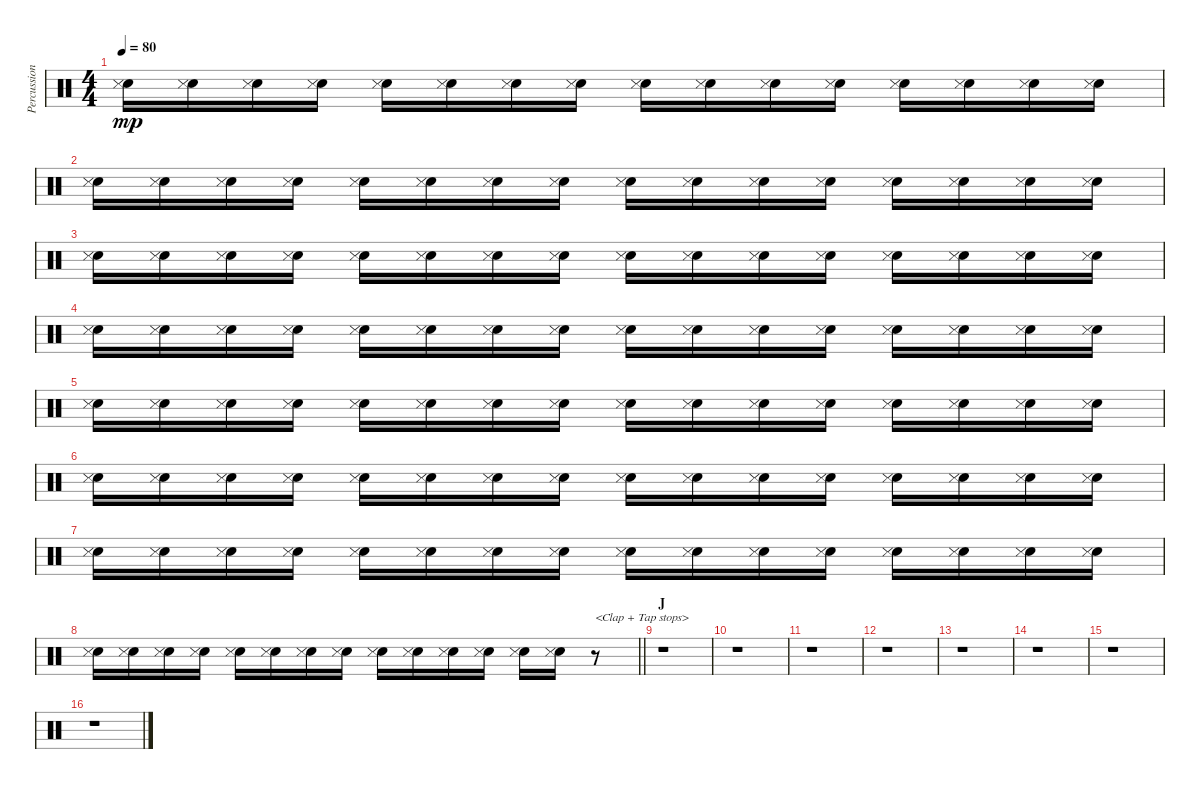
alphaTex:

\track ("Percussion" "Percussion") {instrument percussion}
\staff {score}
\articulation defaults
\ts (4 4)
\tempo 80
\clef neutral
\ks c
("Hand Clap (hit)" "Snare (side stick) 3").16{dy mp} ("Hand Clap (hit)" "Snare (side stick) 3").16 ("Hand Clap (hit)" "Snare (side stick) 3").16 ("Hand Clap (hit)" "Snare (side stick) 3").16 ("Hand Clap (hit)" "Snare (side stick) 3").16 ("Hand Clap (hit)" "Snare (side stick) 3").16 ("Hand Clap (hit)" "Snare (side stick) 3").16 ("Hand Clap (hit)" "Snare (side stick) 3").16 ("Hand Clap (hit)" "Snare (side stick) 3").16 ("Hand Clap (hit)" "Snare (side stick) 3").16 ("Hand Clap (hit)" "Snare (side stick) 3").16 ("Hand Clap (hit)" "Snare (side stick) 3").16 ("Hand Clap (hit)" "Snare (side stick) 3").16 ("Hand Clap (hit)" "Snare (side stick) 3").16 ("Hand Clap (hit)" "Snare (side stick) 3").16 ("Hand Clap (hit)" "Snare (side stick) 3").16 |
("Hand Clap (hit)" "Snare (side stick) 3").16 ("Hand Clap (hit)" "Snare (side stick) 3").16 ("Hand Clap (hit)" "Snare (side stick) 3").16 ("Hand Clap (hit)" "Snare (side stick) 3").16 ("Hand Clap (hit)" "Snare (side stick) 3").16 ("Hand Clap (hit)" "Snare (side stick) 3").16 ("Hand Clap (hit)" "Snare (side stick) 3").16 ("Hand Clap (hit)" "Snare (side stick) 3").16 ("Hand Clap (hit)" "Snare (side stick) 3").16 ("Hand Clap (hit)" "Snare (side stick) 3").16 ("Hand Clap (hit)" "Snare (side stick) 3").16 ("Hand Clap (hit)" "Snare (side stick) 3").16 ("Hand Clap (hit)" "Snare (side stick) 3").16 ("Hand Clap (hit)" "Snare (side stick) 3").16 ("Hand Clap (hit)" "Snare (side stick) 3").16 ("Hand Clap (hit)" "Snare (side stick) 3").16 |
("Hand Clap (hit)" "Snare (side stick) 3").16 ("Hand Clap (hit)" "Snare (side stick) 3").16 ("Hand Clap (hit)" "Snare (side stick) 3").16 ("Hand Clap (hit)" "Snare (side stick) 3").16 ("Hand Clap (hit)" "Snare (side stick) 3").16 ("Hand Clap (hit)" "Snare (side stick) 3").16 ("Hand Clap (hit)" "Snare (side stick) 3").16 ("Hand Clap (hit)" "Snare (side stick) 3").16 ("Hand Clap (hit)" "Snare (side stick) 3").16 ("Hand Clap (hit)" "Snare (side stick) 3").16 ("Hand Clap (hit)" "Snare (side stick) 3").16 ("Hand Clap (hit)" "Snare (side stick) 3").16 ("Hand Clap (hit)" "Snare (side stick) 3").16 ("Hand Clap (hit)" "Snare (side stick) 3").16 ("Hand Clap (hit)" "Snare (side stick) 3").16 ("Hand Clap (hit)" "Snare (side stick) 3").16 |
("Hand Clap (hit)" "Snare (side stick) 3").16 ("Hand Clap (hit)" "Snare (side stick) 3").16 ("Hand Clap (hit)" "Snare (side stick) 3").16 ("Hand Clap (hit)" "Snare (side stick) 3").16 ("Hand Clap (hit)" "Snare (side stick) 3").16 ("Hand Clap (hit)" "Snare (side stick) 3").16 ("Hand Clap (hit)" "Snare (side stick) 3").16 ("Hand Clap (hit)" "Snare (side stick) 3").16 ("Hand Clap (hit)" "Snare (side stick) 3").16 ("Hand Clap (hit)" "Snare (side stick) 3").16 ("Hand Clap (hit)" "Snare (side stick) 3").16 ("Hand Clap (hit)" "Snare (side stick) 3").16 ("Hand Clap (hit)" "Snare (side stick) 3").16 ("Hand Clap (hit)" "Snare (side stick) 3").16 ("Hand Clap (hit)" "Snare (side stick) 3").16 ("Hand Clap (hit)" "Snare (side stick) 3").16 |
("Hand Clap (hit)" "Snare (side stick) 3").16 ("Hand Clap (hit)" "Snare (side stick) 3").16 ("Hand Clap (hit)" "Snare (side stick) 3").16 ("Hand Clap (hit)" "Snare (side stick) 3").16 ("Hand Clap (hit)" "Snare (side stick) 3").16 ("Hand Clap (hit)" "Snare (side stick) 3").16 ("Hand Clap (hit)" "Snare (side stick) 3").16 ("Hand Clap (hit)" "Snare (side stick) 3").16 ("Hand Clap (hit)" "Snare (side stick) 3").16 ("Hand Clap (hit)" "Snare (side stick) 3").16 ("Hand Clap (hit)" "Snare (side stick) 3").16 ("Hand Clap (hit)" "Snare (side stick) 3").16 ("Hand Clap (hit)" "Snare (side stick) 3").16 ("Hand Clap (hit)" "Snare (side stick) 3").16 ("Hand Clap (hit)" "Snare (side stick) 3").16 ("Hand Clap (hit)" "Snare (side stick) 3").16 |
("Hand Clap (hit)" "Snare (side stick) 3").16 ("Hand Clap (hit)" "Snare (side stick) 3").16 ("Hand Clap (hit)" "Snare (side stick) 3").16 ("Hand Clap (hit)" "Snare (side stick) 3").16 ("Hand Clap (hit)" "Snare (side stick) 3").16 ("Hand Clap (hit)" "Snare (side stick) 3").16 ("Hand Clap (hit)" "Snare (side stick) 3").16 ("Hand Clap (hit)" "Snare (side stick) 3").16 ("Hand Clap (hit)" "Snare (side stick) 3").16 ("Hand Clap (hit)" "Snare (side stick) 3").16 ("Hand Clap (hit)" "Snare (side stick) 3").16 ("Hand Clap (hit)" "Snare (side stick) 3").16 ("Hand Clap (hit)" "Snare (side stick) 3").16 ("Hand Clap (hit)" "Snare (side stick) 3").16 ("Hand Clap (hit)" "Snare (side stick) 3").16 ("Hand Clap (hit)" "Snare (side stick) 3").16 |
("Hand Clap (hit)" "Snare (side stick) 3").16 ("Hand Clap (hit)" "Snare (side stick) 3").16 ("Hand Clap (hit)" "Snare (side stick) 3").16 ("Hand Clap (hit)" "Snare (side stick) 3").16 ("Hand Clap (hit)" "Snare (side stick) 3").16 ("Hand Clap (hit)" "Snare (side stick) 3").16 ("Hand Clap (hit)" "Snare (side stick) 3").16 ("Hand Clap (hit)" "Snare (side stick) 3").16 ("Hand Clap (hit)" "Snare (side stick) 3").16 ("Hand Clap (hit)" "Snare (side stick) 3").16 ("Hand Clap (hit)" "Snare (side stick) 3").16 ("Hand Clap (hit)" "Snare (side stick) 3").16 ("Hand Clap (hit)" "Snare (side stick) 3").16 ("Hand Clap (hit)" "Snare (side stick) 3").16 ("Hand Clap (hit)" "Snare (side stick) 3").16 ("Hand Clap (hit)" "Snare (side stick) 3").16 |
\barLineRight lightlight
("Hand Clap (hit)" "Snare (side stick) 3").16 ("Hand Clap (hit)" "Snare (side stick) 3").16 ("Hand Clap (hit)" "Snare (side stick) 3").16 ("Hand Clap (hit)" "Snare (side stick) 3").16 ("Hand Clap (hit)" "Snare (side stick) 3").16 ("Hand Clap (hit)" "Snare (side stick) 3").16 ("Hand Clap (hit)" "Snare (side stick) 3").16 ("Hand Clap (hit)" "Snare (side stick) 3").16 ("Hand Clap (hit)" "Snare (side stick) 3").16 ("Hand Clap (hit)" "Snare (side stick) 3").16 ("Hand Clap (hit)" "Snare (side stick) 3").16 ("Hand Clap (hit)" "Snare (side stick) 3").16 ("Hand Clap (hit)" "Snare (side stick) 3").16 ("Hand Clap (hit)" "Snare (side stick) 3").16 r.8{txt "<Clap + Tap stops>"} |
\section ("" "J")
r.1 |
r.1 |
r.1 |
r.1 |
r.1 |
r.1 |
r.1 |
r.1
